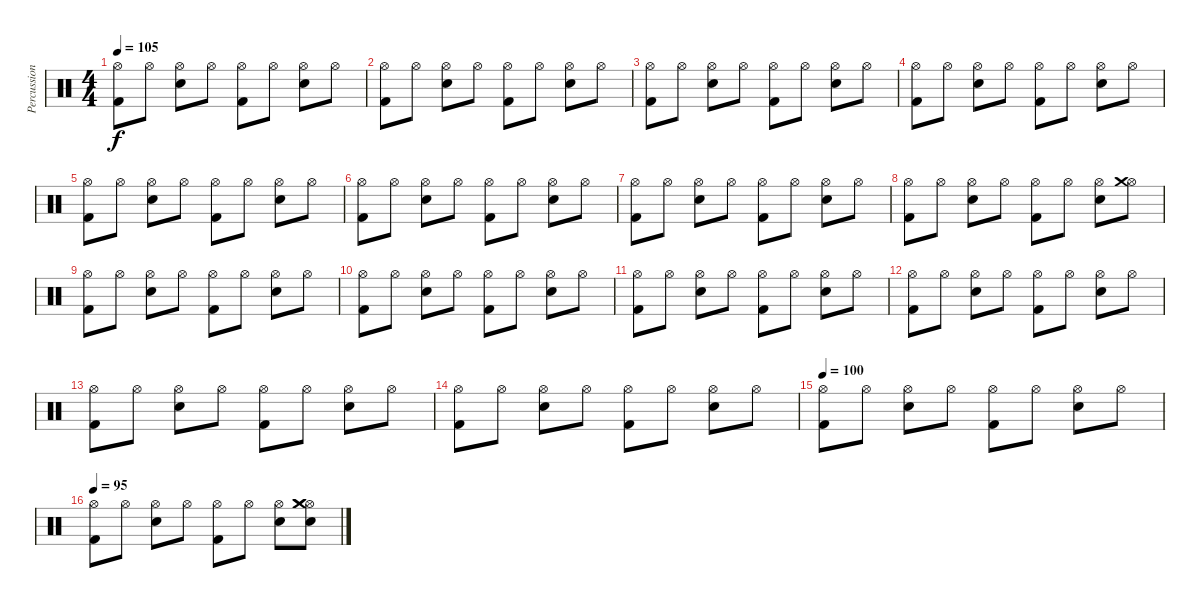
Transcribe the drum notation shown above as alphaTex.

\track ("Percussion" "Percussion") {instrument percussion}
\staff {score}
\articulation defaults
\ts (4 4)
\tempo 105
\clef neutral
\ks c
("Hi-Hat (open)" "Kick (hit) 2").8{dy f} "Hi-Hat (open)".8 ("Hi-Hat (open)" "Snare (hit) 2").8 "Hi-Hat (open)".8 ("Hi-Hat (open)" "Kick (hit) 2").8 "Hi-Hat (open)".8 ("Hi-Hat (open)" "Snare (hit) 2").8 "Hi-Hat (open)".8 |
("Hi-Hat (open)" "Kick (hit) 2").8 "Hi-Hat (open)".8 ("Hi-Hat (open)" "Snare (hit) 2").8 "Hi-Hat (open)".8 ("Hi-Hat (open)" "Kick (hit) 2").8 "Hi-Hat (open)".8 ("Hi-Hat (open)" "Snare (hit) 2").8 "Hi-Hat (open)".8 |
("Hi-Hat (open)" "Kick (hit) 2").8 "Hi-Hat (open)".8 ("Hi-Hat (open)" "Snare (hit) 2").8 "Hi-Hat (open)".8 ("Hi-Hat (open)" "Kick (hit) 2").8 "Hi-Hat (open)".8 ("Hi-Hat (open)" "Snare (hit) 2").8 "Hi-Hat (open)".8 |
("Hi-Hat (open)" "Kick (hit) 2").8 "Hi-Hat (open)".8 ("Hi-Hat (open)" "Snare (hit) 2").8 "Hi-Hat (open)".8 ("Hi-Hat (open)" "Kick (hit) 2").8 "Hi-Hat (open)".8 ("Hi-Hat (open)" "Snare (hit) 2").8 "Hi-Hat (open)".8 |
("Hi-Hat (open)" "Kick (hit) 2").8 "Hi-Hat (open)".8 ("Hi-Hat (open)" "Snare (hit) 2").8 "Hi-Hat (open)".8 ("Hi-Hat (open)" "Kick (hit) 2").8 "Hi-Hat (open)".8 ("Hi-Hat (open)" "Snare (hit) 2").8 "Hi-Hat (open)".8 |
("Hi-Hat (open)" "Kick (hit) 2").8 "Hi-Hat (open)".8 ("Hi-Hat (open)" "Snare (hit) 2").8 "Hi-Hat (open)".8 ("Hi-Hat (open)" "Kick (hit) 2").8 "Hi-Hat (open)".8 ("Hi-Hat (open)" "Snare (hit) 2").8 "Hi-Hat (open)".8 |
("Hi-Hat (open)" "Kick (hit) 2").8 "Hi-Hat (open)".8 ("Hi-Hat (open)" "Snare (hit) 2").8 "Hi-Hat (open)".8 ("Hi-Hat (open)" "Kick (hit) 2").8 "Hi-Hat (open)".8 ("Hi-Hat (open)" "Snare (hit) 2").8 "Hi-Hat (open)".8 |
("Hi-Hat (open)" "Kick (hit) 2").8 "Hi-Hat (open)".8 ("Hi-Hat (open)" "Snare (hit) 2").8 "Hi-Hat (open)".8 ("Hi-Hat (open)" "Kick (hit) 2").8 "Hi-Hat (open)".8 ("Hi-Hat (open)" "Snare (hit) 2").8 ("Hi-Hat (open)" "Crash medium (hit)").8 |
("Hi-Hat (open)" "Kick (hit) 2").8 "Hi-Hat (open)".8 ("Hi-Hat (open)" "Snare (hit) 2").8 "Hi-Hat (open)".8 ("Hi-Hat (open)" "Kick (hit) 2").8 "Hi-Hat (open)".8 ("Hi-Hat (open)" "Snare (hit) 2").8 "Hi-Hat (open)".8 |
("Hi-Hat (open)" "Kick (hit) 2").8 "Hi-Hat (open)".8 ("Hi-Hat (open)" "Snare (hit) 2").8 "Hi-Hat (open)".8 ("Hi-Hat (open)" "Kick (hit) 2").8 "Hi-Hat (open)".8 ("Hi-Hat (open)" "Snare (hit) 2").8 "Hi-Hat (open)".8 |
("Hi-Hat (open)" "Kick (hit) 2").8 "Hi-Hat (open)".8 ("Hi-Hat (open)" "Snare (hit) 2").8 "Hi-Hat (open)".8 ("Hi-Hat (open)" "Kick (hit) 2").8 "Hi-Hat (open)".8 ("Hi-Hat (open)" "Snare (hit) 2").8 "Hi-Hat (open)".8 |
("Hi-Hat (open)" "Kick (hit) 2").8 "Hi-Hat (open)".8 ("Hi-Hat (open)" "Snare (hit) 2").8 "Hi-Hat (open)".8 ("Hi-Hat (open)" "Kick (hit) 2").8 "Hi-Hat (open)".8 ("Hi-Hat (open)" "Snare (hit) 2").8 "Hi-Hat (open)".8 |
("Hi-Hat (open)" "Kick (hit) 2").8 "Hi-Hat (open)".8 ("Hi-Hat (open)" "Snare (hit) 2").8 "Hi-Hat (open)".8 ("Hi-Hat (open)" "Kick (hit) 2").8 "Hi-Hat (open)".8 ("Hi-Hat (open)" "Snare (hit) 2").8 "Hi-Hat (open)".8 |
("Hi-Hat (open)" "Kick (hit) 2").8 "Hi-Hat (open)".8 ("Hi-Hat (open)" "Snare (hit) 2").8 "Hi-Hat (open)".8 ("Hi-Hat (open)" "Kick (hit) 2").8 "Hi-Hat (open)".8 ("Hi-Hat (open)" "Snare (hit) 2").8 "Hi-Hat (open)".8 |
\tempo 100
("Hi-Hat (open)" "Kick (hit) 2").8 "Hi-Hat (open)".8 ("Hi-Hat (open)" "Snare (hit) 2").8 "Hi-Hat (open)".8 ("Hi-Hat (open)" "Kick (hit) 2").8 "Hi-Hat (open)".8 ("Hi-Hat (open)" "Snare (hit) 2").8 "Hi-Hat (open)".8 |
\tempo 95
("Hi-Hat (open)" "Kick (hit) 2").8 "Hi-Hat (open)".8 ("Hi-Hat (open)" "Snare (hit) 2").8 "Hi-Hat (open)".8 ("Hi-Hat (open)" "Kick (hit) 2").8 "Hi-Hat (open)".8 ("Hi-Hat (open)" "Snare (hit) 2").8 ("Hi-Hat (open)" "Crash medium (hit)" "Crash medium (hit)" "Snare (hit) 2").8
